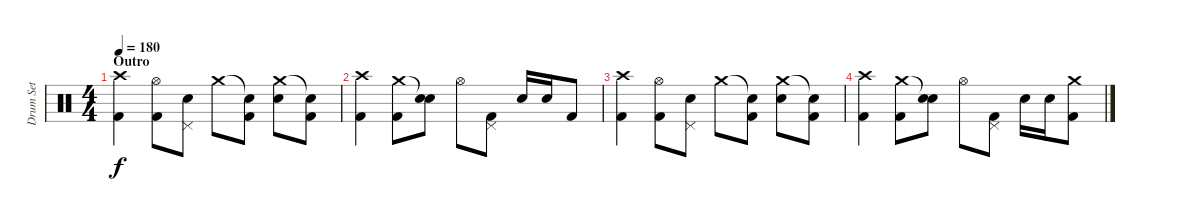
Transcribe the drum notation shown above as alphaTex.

\track ("Drum Set" "Drum Set") {instrument percussion}
\staff {score}
\articulation defaults
\ts (4 4)
\section ("" "Outro")
\tempo 180
\clef neutral
\ks c
("Crash high (hit)" "Kick (hit) 2").4{dy f} ("Hi-Hat (open)" "Kick (hit) 2").8 ("Pedal Hi-Hat (hit)" "Electric Snare (hit)").8 "Crash medium (hit)".8 ("Snare (hit)"{t} "Kick (hit) 2").8 ("Crash medium (hit)" "Electric Snare (hit)").8 ("Snare (hit)"{t} "Kick (hit) 2").8 |
("Crash high (hit)" "Kick (hit) 2").4 ("Crash medium (hit)" "Kick (hit) 2").8 ("Electric Snare (hit)"{t} "Electric Snare (hit)").8 "Hi-Hat (open)".8 ("Pedal Hi-Hat (hit)" "Kick (hit) 2").8 "Electric Snare (hit)".16 "Electric Snare (hit)".16 "Kick (hit) 2".8 |
("Crash high (hit)" "Kick (hit) 2").4 ("Hi-Hat (open)" "Kick (hit) 2").8 ("Pedal Hi-Hat (hit)" "Electric Snare (hit)").8 "Crash medium (hit)".8 ("Snare (hit)"{t} "Kick (hit) 2").8 ("Crash medium (hit)" "Electric Snare (hit)").8 ("Snare (hit)"{t} "Kick (hit) 2").8 |
("Crash high (hit)" "Kick (hit) 2").4 ("Crash medium (hit)" "Kick (hit) 2").8 ("Electric Snare (hit)"{t} "Electric Snare (hit)").8 "Hi-Hat (open)".8 ("Pedal Hi-Hat (hit)" "Kick (hit) 2").8 "Electric Snare (hit)".16 "Electric Snare (hit)".16 ("Kick (hit) 2" "Crash medium (hit)").8
